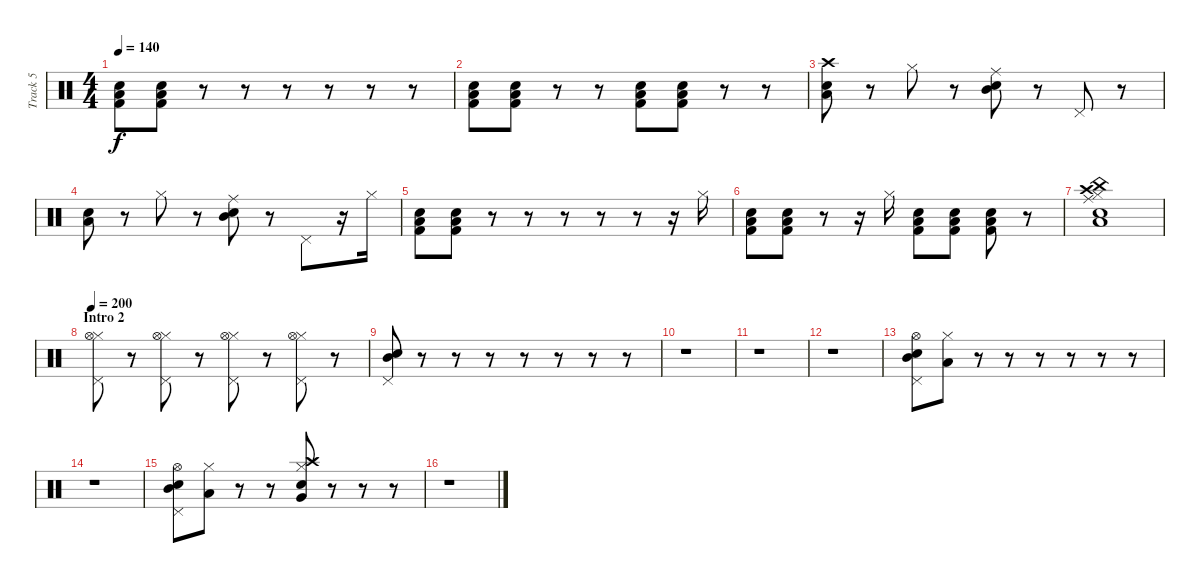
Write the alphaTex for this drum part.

\track ("Track 5" "Track 5") {instrument percussion}
\staff {score}
\articulation defaults
\ts (4 4)
\tempo 140
\clef neutral
\ks c
("Low Floor Tom (hit)" "Kick (hit) 2" "Electric Snare (hit)").8{dy f} ("Low Floor Tom (hit)" "Kick (hit) 2" "Electric Snare (hit)").8 r.8 r.8 r.8 r.8 r.8 r.8 |
("Low Floor Tom (hit)" "Kick (hit) 2" "Electric Snare (hit)").8 ("Low Floor Tom (hit)" "Kick (hit) 2" "Electric Snare (hit)").8 r.8 r.8 ("Low Floor Tom (hit)" "Kick (hit) 2" "Electric Snare (hit)").8 ("Low Floor Tom (hit)" "Kick (hit) 2" "Electric Snare (hit)").8 r.8 r.8 |
("Low Tom (hit)" "Snare (hit) 2" "Crash high (hit)").8 r.8 "Hi-Hat (closed)".8 r.8 ("Mid Tom (hit)" "Electric Snare (hit)" "Ride (middle)").8 r.8 "Pedal Hi-Hat (hit)".8 r.8 |
("Low Tom (hit)" "Snare (hit) 2").8 r.8 "Hi-Hat (closed)".8 r.8 ("Mid Tom (hit)" "Electric Snare (hit)" "Ride (middle)").8 r.8 "Pedal Hi-Hat (hit)".8 r.16 "Hi-Hat (closed)".16 |
("Low Floor Tom (hit)" "Kick (hit) 2" "Electric Snare (hit)").8 ("Low Floor Tom (hit)" "Kick (hit) 2" "Electric Snare (hit)").8 r.8 r.8 r.8 r.8 r.8 r.16 "Hi-Hat (closed)".16 |
("Low Floor Tom (hit)" "Kick (hit) 2" "Electric Snare (hit)").8 ("Low Floor Tom (hit)" "Kick (hit) 2" "Electric Snare (hit)").8 r.8 r.16 "Hi-Hat (closed)".16 ("Low Floor Tom (hit)" "Kick (hit) 2" "Electric Snare (hit)").8 ("Low Floor Tom (hit)" "Kick (hit) 2" "Electric Snare (hit)").8 ("Low Floor Tom (hit)" "Kick (hit) 2" "Electric Snare (hit)").8 r.8 |
("Low Tom (hit)" "Hi-Hat (closed)" "Ride (middle)" "Snare (hit) 2" "Crash high (hit)" "China (hit)").1 |
\section ("" "Intro 2")
\tempo 200
("Hi-Hat (closed)" "Pedal Hi-Hat (hit)" "Hi-Hat (open)").8 r.8 ("Hi-Hat (closed)" "Pedal Hi-Hat (hit)" "Hi-Hat (open)").8 r.8 ("Hi-Hat (closed)" "Pedal Hi-Hat (hit)" "Hi-Hat (open)").8 r.8 ("Hi-Hat (closed)" "Pedal Hi-Hat (hit)" "Hi-Hat (open)").8 r.8 |
("Mid Tom (hit)" "Pedal Hi-Hat (hit)" "Snare (hit) 2").8 r.8 r.8 r.8 r.8 r.8 r.8 r.8 |
r.1 |
r.1 |
r.1 |
("Mid Tom (hit)" "Pedal Hi-Hat (hit)" "Snare (hit) 2" "Hi-Hat (open)").8 ("Hi-Hat (closed)" "Low Tom (hit)").8 r.8 r.8 r.8 r.8 r.8 r.8 |
r.1 |
("Mid Tom (hit)" "Pedal Hi-Hat (hit)" "Snare (hit) 2" "Hi-Hat (open)").8 ("Hi-Hat (closed)" "Low Tom (hit)").8 r.8 r.8 ("Very Low Tom (hit)" "Hi-Hat (closed)" "Electric Snare (hit)" "Crash high (hit)").8 r.8 r.8 r.8 |
r.1
